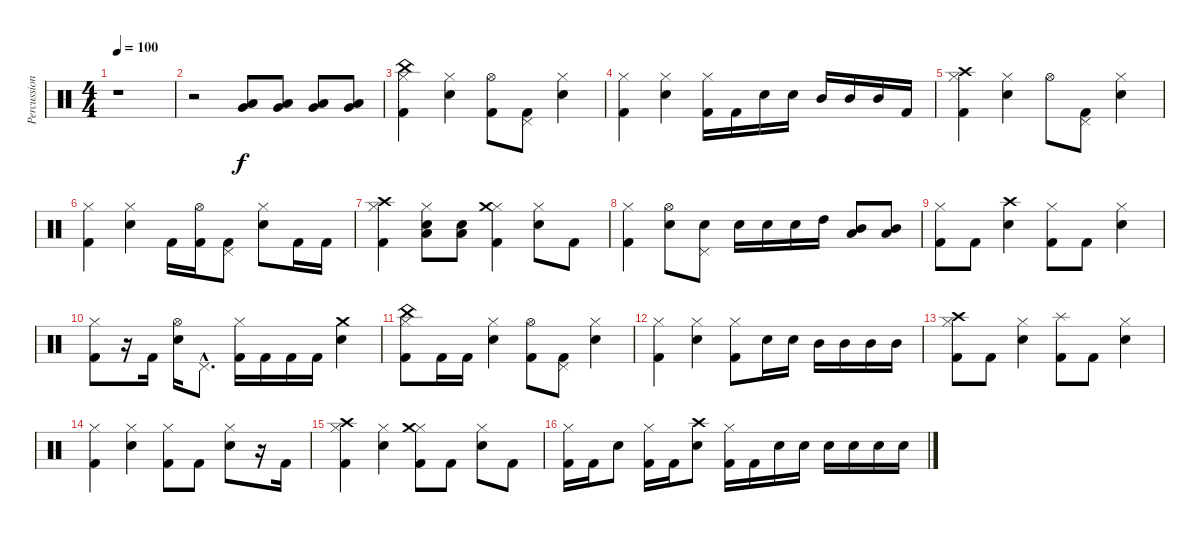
\track ("Percussioni" "Percussion") {instrument percussion}
\staff {score}
\articulation defaults
\ts (4 4)
\tempo 100
\clef neutral
\ks c
r.1{dy f} |
r.2 ("Very Low Tom (hit)" "Low Floor Tom (hit)").8 ("Very Low Tom (hit)" "Low Floor Tom (hit)").8 ("Very Low Tom (hit)" "Low Floor Tom (hit)").8 ("Very Low Tom (hit)" "Low Floor Tom (hit)").8 |
("Hi-Hat (closed)" "China (hit)" "Kick (hit) 2").4 ("Hi-Hat (closed)" "Electric Snare (hit)").4 ("Hi-Hat (open)" "Kick (hit) 2").8 ("Pedal Hi-Hat (hit)" "Kick (hit) 2").8 ("Hi-Hat (closed)" "Electric Snare (hit)").4 |
("Hi-Hat (closed)" "Kick (hit) 2").4 ("Hi-Hat (closed)" "Electric Snare (hit)").4 ("Hi-Hat (closed)" "Kick (hit) 2").16 "Kick (hit) 2".16 "Electric Snare (hit)".16 "Electric Snare (hit)".16 "Mid Tom (hit)".16 "Mid Tom (hit)".16 "Mid Tom (hit)".16 "Kick (hit) 2".16 |
("Hi-Hat (closed)" "Crash high (hit)" "Kick (hit) 2").4 ("Hi-Hat (closed)" "Electric Snare (hit)").4 "Hi-Hat (open)".8 ("Pedal Hi-Hat (hit)" "Kick (hit) 2").8 ("Hi-Hat (closed)" "Electric Snare (hit)").4 |
("Hi-Hat (closed)" "Kick (hit) 2").4 ("Hi-Hat (closed)" "Electric Snare (hit)").4 "Kick (hit) 2".16 ("Hi-Hat (open)" "Kick (hit) 2").16 ("Pedal Hi-Hat (hit)" "Kick (hit) 2").8 ("Hi-Hat (closed)" "Electric Snare (hit)").8 "Kick (hit) 2".16 "Kick (hit) 2".16 |
("Hi-Hat (closed)" "Crash high (hit)" "Kick (hit) 2").4 ("Hi-Hat (closed)" "Electric Snare (hit)" "Low Tom (hit)").8 ("Electric Snare (hit)" "Low Tom (hit)").8 ("Hi-Hat (closed)" "Crash medium (hit)" "Kick (hit) 2").4 ("Hi-Hat (closed)" "Electric Snare (hit)").8 "Kick (hit) 2".8 |
("Hi-Hat (closed)" "Kick (hit) 2").4 ("Hi-Hat (open)" "Electric Snare (hit)").8 ("Pedal Hi-Hat (hit)" "Electric Snare (hit)").8 "Electric Snare (hit)".16 "Electric Snare (hit)".16 "Electric Snare (hit)".16 "High Tom (hit)".16 ("Mid Tom (hit)" "Low Tom (hit)").8 ("Mid Tom (hit)" "Low Tom (hit)").8 |
("Hi-Hat (closed)" "Kick (hit) 2").8 "Kick (hit) 2".8 ("Crash high (hit)" "Electric Snare (hit)").4 ("Hi-Hat (closed)" "Kick (hit) 2").8 "Kick (hit) 2".8 ("Hi-Hat (closed)" "Electric Snare (hit)").4 |
("Hi-Hat (closed)" "Kick (hit) 2").8 r.16 "Kick (hit) 2".16 ("Hi-Hat (open)" "Electric Snare (hit)").16 "Pedal Hi-Hat (hit)"{hac}.8{d} ("Hi-Hat (closed)" "Kick (hit) 2").16 "Kick (hit) 2".16 "Kick (hit) 2".16 "Kick (hit) 2".16 ("Crash medium (hit)" "Electric Snare (hit)").4 |
("Hi-Hat (closed)" "China (hit)" "Kick (hit) 2").8 "Kick (hit) 2".16 "Kick (hit) 2".16 ("Hi-Hat (closed)" "Electric Snare (hit)").4 ("Hi-Hat (open)" "Kick (hit) 2").8 ("Pedal Hi-Hat (hit)" "Kick (hit) 2").8 ("Hi-Hat (closed)" "Electric Snare (hit)").4 |
("Hi-Hat (closed)" "Kick (hit) 2").4 ("Hi-Hat (closed)" "Electric Snare (hit)").4 ("Hi-Hat (closed)" "Kick (hit) 2").8 "Electric Snare (hit)".16 "Electric Snare (hit)".16 "Mid Tom (hit)".16 "Mid Tom (hit)".16 "Mid Tom (hit)".16 "Mid Tom (hit)".16 |
("Hi-Hat (closed)" "Crash high (hit)" "Kick (hit) 2").8 "Kick (hit) 2".8 ("Hi-Hat (closed)" "Electric Snare (hit)").4 ("Splash (hit)" "Kick (hit) 2").8 "Kick (hit) 2".8 ("Hi-Hat (closed)" "Electric Snare (hit)").4 |
("Hi-Hat (closed)" "Kick (hit) 2").4 ("Hi-Hat (closed)" "Electric Snare (hit)").4 ("Hi-Hat (closed)" "Kick (hit) 2").8 "Kick (hit) 2".8 ("Hi-Hat (closed)" "Electric Snare (hit)").8 r.16 "Kick (hit) 2".16 |
("Hi-Hat (closed)" "Crash high (hit)" "Kick (hit) 2").4 ("Hi-Hat (closed)" "Electric Snare (hit)").4 ("Hi-Hat (closed)" "Crash medium (hit)" "Kick (hit) 2").8 "Kick (hit) 2".8 ("Hi-Hat (closed)" "Electric Snare (hit)").8 "Kick (hit) 2".8 |
("Hi-Hat (closed)" "Kick (hit) 2").16 "Kick (hit) 2".16 "Electric Snare (hit)".8 ("Hi-Hat (closed)" "Kick (hit) 2").16 "Kick (hit) 2".16 ("Crash high (hit)" "Electric Snare (hit)").8 ("Hi-Hat (closed)" "Kick (hit) 2").16 "Kick (hit) 2".16 "Electric Snare (hit)".16 "Electric Snare (hit)".16 "Electric Snare (hit)".16 "Electric Snare (hit)".16 "Electric Snare (hit)".16 "Electric Snare (hit)".16
